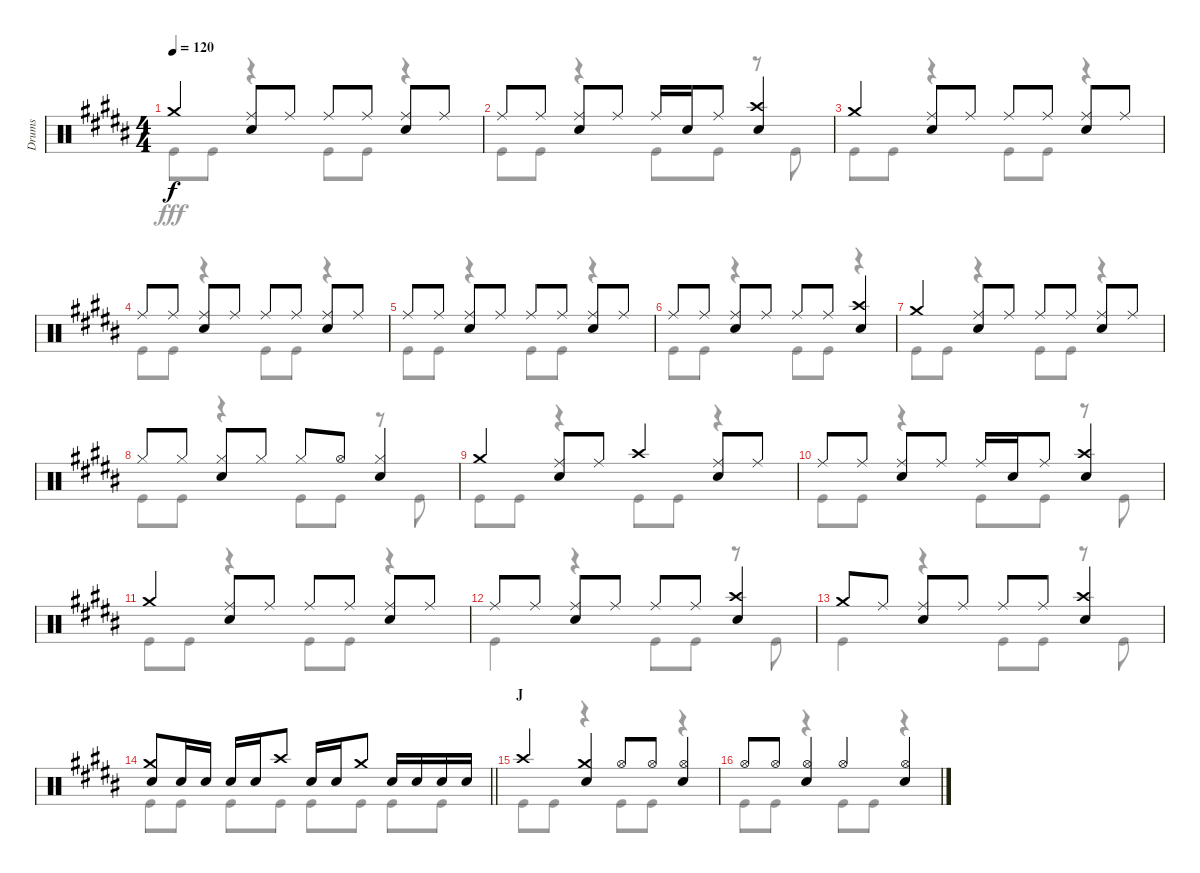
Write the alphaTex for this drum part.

\track ("Drums" "Drums") {instrument percussion}
\staff {score}
\articulation defaults
\voice
\ts (4 4)
\tempo 120
\clef neutral
\ks b "Crash medium (hit)".4{dy f}
("Ride (middle)" "Snare (hit) 2").8 "Ride (middle)".8 "Ride (middle)".8 "Ride (middle)".8 ("Ride (middle)" "Snare (hit) 2").8 "Ride (middle)".8 |
"Ride (middle)".8 "Ride (middle)".8 ("Ride (middle)" "Snare (hit) 2").8 "Ride (middle)".8 "Ride (middle)".16 "Snare (hit) 2".16 "Ride (middle)".8 ("Crash high (hit)" "Snare (hit) 2").4 |
"Crash medium (hit)".4 ("Ride (middle)" "Snare (hit) 2").8 "Ride (middle)".8 "Ride (middle)".8 "Ride (middle)".8 ("Ride (middle)" "Snare (hit) 2").8 "Ride (middle)".8 |
"Ride (middle)".8 "Ride (middle)".8 ("Ride (middle)" "Snare (hit) 2").8 "Ride (middle)".8 "Ride (middle)".8 "Ride (middle)".8 ("Ride (middle)" "Snare (hit) 2").8 "Ride (middle)".8 |
"Ride (middle)".8 "Ride (middle)".8 ("Ride (middle)" "Snare (hit) 2").8 "Ride (middle)".8 "Ride (middle)".8 "Ride (middle)".8 ("Ride (middle)" "Snare (hit) 2").8 "Ride (middle)".8 |
"Ride (middle)".8 "Ride (middle)".8 ("Ride (middle)" "Snare (hit) 2").8 "Ride (middle)".8 "Ride (middle)".8 "Ride (middle)".8 ("Crash high (hit)" "Snare (hit) 2").4 |
"Crash medium (hit)".4 ("Ride (middle)" "Snare (hit) 2").8 "Ride (middle)".8 "Ride (middle)".8 "Ride (middle)".8 ("Ride (middle)" "Snare (hit) 2").8 "Ride (middle)".8 |
"Hi-Hat (closed)".8 "Hi-Hat (closed)".8 ("Hi-Hat (closed)" "Snare (hit) 2").8 "Hi-Hat (closed)".8 "Hi-Hat (closed)".8 "Hi-Hat (open)".8 ("Hi-Hat (closed)" "Snare (hit) 2").4 |
"Crash medium (hit)".4 ("Ride (middle)" "Snare (hit) 2").8 "Ride (middle)".8 "Crash high (hit)".4 ("Ride (middle)" "Snare (hit) 2").8 "Ride (middle)".8 |
"Ride (middle)".8 "Ride (middle)".8 ("Ride (middle)" "Snare (hit) 2").8 "Ride (middle)".8 "Ride (middle)".16 "Snare (hit) 2".16 "Ride (middle)".8 ("Crash high (hit)" "Snare (hit) 2").4 |
"Crash medium (hit)".4 ("Ride (middle)" "Snare (hit) 2").8 "Ride (middle)".8 "Ride (middle)".8 "Ride (middle)".8 ("Ride (middle)" "Snare (hit) 2").8 "Ride (middle)".8 |
"Ride (middle)".8 "Ride (middle)".8 ("Ride (middle)" "Snare (hit) 2").8 "Ride (middle)".8 "Ride (middle)".8 "Ride (middle)".8 ("Crash high (hit)" "Snare (hit) 2").4 |
"Crash medium (hit)".8 "Ride (middle)".8 ("Ride (middle)" "Snare (hit) 2").8 "Ride (middle)".8 "Ride (middle)".8 "Ride (middle)".8 ("Crash high (hit)" "Snare (hit) 2").4 |
\barLineRight lightlight
("Crash medium (hit)" "Snare (hit) 2").8 "Snare (hit) 2".16 "Snare (hit) 2".16 "Snare (hit) 2".16 "Snare (hit) 2".16 "Crash high (hit)".8 "Snare (hit) 2".16 "Snare (hit) 2".16 "Crash medium (hit)".8 "Snare (hit) 2".16 "Snare (hit) 2".16 "Snare (hit) 2".16 "Snare (hit) 2".16 |
\section ("" "J")
"Crash high (hit)".4 ("Crash medium (hit)" "Snare (hit) 2").4 "Hi-Hat (open)".8 "Hi-Hat (open)".8 ("Hi-Hat (open)" "Snare (hit) 2").4 |
"Hi-Hat (open)".8 "Hi-Hat (open)".8 ("Hi-Hat (open)" "Snare (hit) 2").4 "Hi-Hat (open)".4 ("Hi-Hat (open)" "Snare (hit) 2").4
\voice
\clef neutral
\ottava regular
\simile none
\ks b "Kick (hit)".8{dy fff} "Kick (hit)".8
r.4 "Kick (hit)".8 "Kick (hit)".8 r.4 |
"Kick (hit)".8 "Kick (hit)".8 r.4 "Kick (hit)".8 "Kick (hit)".8 r.8 "Kick (hit)".8 |
"Kick (hit)".8 "Kick (hit)".8 r.4 "Kick (hit)".8 "Kick (hit)".8 r.4 |
"Kick (hit)".8 "Kick (hit)".8 r.4 "Kick (hit)".8 "Kick (hit)".8 r.4 |
"Kick (hit)".8 "Kick (hit)".8 r.4 "Kick (hit)".8 "Kick (hit)".8 r.4 |
"Kick (hit)".8 "Kick (hit)".8 r.4 "Kick (hit)".8 "Kick (hit)".8 r.4 |
"Kick (hit)".8 "Kick (hit)".8 r.4 "Kick (hit)".8 "Kick (hit)".8 r.4 |
"Kick (hit)".8 "Kick (hit)".8 r.4 "Kick (hit)".8 "Kick (hit)".8 r.8 "Kick (hit)".8 |
"Kick (hit)".8 "Kick (hit)".8 r.4 "Kick (hit)".8 "Kick (hit)".8 r.4 |
"Kick (hit)".8 "Kick (hit)".8 r.4 "Kick (hit)".8 "Kick (hit)".8 r.8 "Kick (hit)".8 |
"Kick (hit)".8 "Kick (hit)".8 r.4 "Kick (hit)".8 "Kick (hit)".8 r.4 |
"Kick (hit)".4 r.4 "Kick (hit)".8 "Kick (hit)".8 r.8 "Kick (hit)".8 |
"Kick (hit)".4 r.4 "Kick (hit)".8 "Kick (hit)".8 r.8 "Kick (hit)".8 |
\barLineRight lightlight "Kick (hit)".8 "Kick (hit)".8 "Kick (hit)".8 "Kick (hit)".8 "Kick (hit)".8 "Kick (hit)".8 "Kick (hit)".8 "Kick (hit)".8
|
"Kick (hit)".8 "Kick (hit)".8 r.4 "Kick (hit)".8 "Kick (hit)".8 r.4 |
"Kick (hit)".8 "Kick (hit)".8 r.4 "Kick (hit)".8 "Kick (hit)".8 r.4
